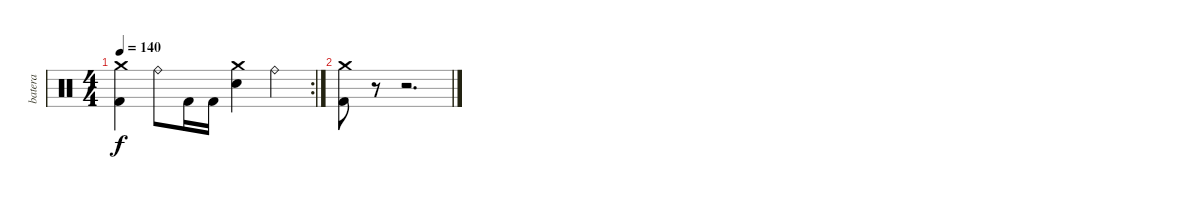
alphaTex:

\track ("batera" "batera") {instrument percussion}
\staff {score}
\articulation defaults
\rc 2
\ts (4 4)
\tempo 140
\clef neutral
\ks c
("Crash medium (hit)" "Kick (hit) 2").4{dy f} "Ride (bell)".8 "Kick (hit) 2".16 "Kick (hit) 2".16 ("Crash medium (hit)" "Electric Snare (hit)").4 "Ride (bell)".4 |
("Crash medium (hit)" "Kick (hit) 2").8 r.8{volume 0} r.2{d}
